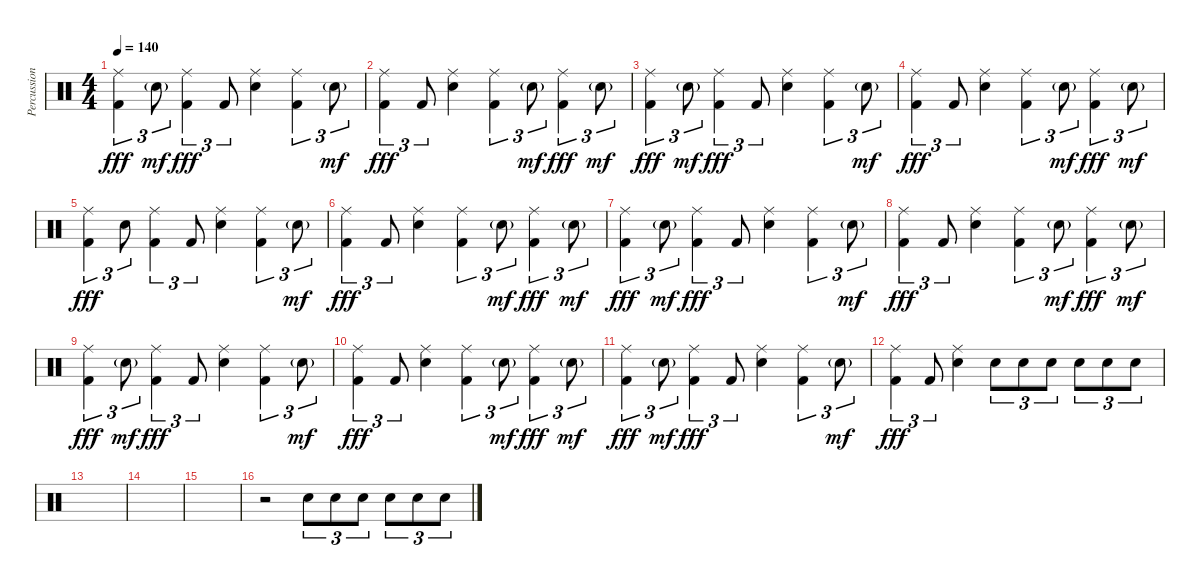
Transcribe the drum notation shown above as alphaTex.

\track ("Percussion" "Percussion") {instrument percussion}
\staff {score}
\articulation defaults
\ts (4 4)
\tempo 140
\clef neutral
\ks c
("Ride (middle)" "Kick (hit) 2").4{tu (3 2) dy fff} "Electric Snare (hit)"{g}.8{tu (3 2) dy mf} ("Ride (middle)" "Kick (hit) 2").4{tu (3 2) dy fff} "Kick (hit) 2".8{tu (3 2)} ("Ride (middle)" "Electric Snare (hit)").4 ("Ride (middle)" "Kick (hit) 2").4{tu (3 2)} "Electric Snare (hit)"{g}.8{tu (3 2) dy mf} |
("Ride (middle)" "Kick (hit) 2").4{tu (3 2) dy fff} "Kick (hit) 2".8{tu (3 2)} ("Ride (middle)" "Electric Snare (hit)").4 ("Ride (middle)" "Kick (hit) 2").4{tu (3 2)} "Electric Snare (hit)"{g}.8{tu (3 2) dy mf} ("Ride (middle)" "Kick (hit) 2").4{tu (3 2) dy fff} "Electric Snare (hit)"{g}.8{tu (3 2) dy mf} |
("Ride (middle)" "Kick (hit) 2").4{tu (3 2) dy fff} "Electric Snare (hit)"{g}.8{tu (3 2) dy mf} ("Ride (middle)" "Kick (hit) 2").4{tu (3 2) dy fff} "Kick (hit) 2".8{tu (3 2)} ("Ride (middle)" "Electric Snare (hit)").4 ("Ride (middle)" "Kick (hit) 2").4{tu (3 2)} "Electric Snare (hit)"{g}.8{tu (3 2) dy mf} |
("Ride (middle)" "Kick (hit) 2").4{tu (3 2) dy fff} "Kick (hit) 2".8{tu (3 2)} ("Ride (middle)" "Electric Snare (hit)").4 ("Ride (middle)" "Kick (hit) 2").4{tu (3 2)} "Electric Snare (hit)"{g}.8{tu (3 2) dy mf} ("Ride (middle)" "Kick (hit) 2").4{tu (3 2) dy fff} "Electric Snare (hit)"{g}.8{tu (3 2) dy mf} |
("Ride (middle)" "Kick (hit) 2").4{tu (3 2) dy fff} "Electric Snare (hit)".8{tu (3 2)} ("Ride (middle)" "Kick (hit) 2").4{tu (3 2)} "Kick (hit) 2".8{tu (3 2)} ("Ride (middle)" "Electric Snare (hit)").4 ("Ride (middle)" "Kick (hit) 2").4{tu (3 2)} "Electric Snare (hit)"{g}.8{tu (3 2) dy mf} |
("Ride (middle)" "Kick (hit) 2").4{tu (3 2) dy fff} "Kick (hit) 2".8{tu (3 2)} ("Ride (middle)" "Electric Snare (hit)").4 ("Ride (middle)" "Kick (hit) 2").4{tu (3 2)} "Electric Snare (hit)"{g}.8{tu (3 2) dy mf} ("Ride (middle)" "Kick (hit) 2").4{tu (3 2) dy fff} "Electric Snare (hit)"{g}.8{tu (3 2) dy mf} |
("Ride (middle)" "Kick (hit) 2").4{tu (3 2) dy fff} "Electric Snare (hit)"{g}.8{tu (3 2) dy mf} ("Ride (middle)" "Kick (hit) 2").4{tu (3 2) dy fff} "Kick (hit) 2".8{tu (3 2)} ("Ride (middle)" "Electric Snare (hit)").4 ("Ride (middle)" "Kick (hit) 2").4{tu (3 2)} "Electric Snare (hit)"{g}.8{tu (3 2) dy mf} |
("Ride (middle)" "Kick (hit) 2").4{tu (3 2) dy fff} "Kick (hit) 2".8{tu (3 2)} ("Ride (middle)" "Electric Snare (hit)").4 ("Ride (middle)" "Kick (hit) 2").4{tu (3 2)} "Electric Snare (hit)"{g}.8{tu (3 2) dy mf} ("Ride (middle)" "Kick (hit) 2").4{tu (3 2) dy fff} "Electric Snare (hit)"{g}.8{tu (3 2) dy mf} |
("Ride (middle)" "Kick (hit) 2").4{tu (3 2) dy fff} "Electric Snare (hit)"{g}.8{tu (3 2) dy mf} ("Ride (middle)" "Kick (hit) 2").4{tu (3 2) dy fff} "Kick (hit) 2".8{tu (3 2)} ("Ride (middle)" "Electric Snare (hit)").4 ("Ride (middle)" "Kick (hit) 2").4{tu (3 2)} "Electric Snare (hit)"{g}.8{tu (3 2) dy mf} |
("Ride (middle)" "Kick (hit) 2").4{tu (3 2) dy fff} "Kick (hit) 2".8{tu (3 2)} ("Ride (middle)" "Electric Snare (hit)").4 ("Ride (middle)" "Kick (hit) 2").4{tu (3 2)} "Electric Snare (hit)"{g}.8{tu (3 2) dy mf} ("Ride (middle)" "Kick (hit) 2").4{tu (3 2) dy fff} "Electric Snare (hit)"{g}.8{tu (3 2) dy mf} |
("Ride (middle)" "Kick (hit) 2").4{tu (3 2) dy fff} "Electric Snare (hit)"{g}.8{tu (3 2) dy mf} ("Ride (middle)" "Kick (hit) 2").4{tu (3 2) dy fff} "Kick (hit) 2".8{tu (3 2)} ("Ride (middle)" "Electric Snare (hit)").4 ("Ride (middle)" "Kick (hit) 2").4{tu (3 2)} "Electric Snare (hit)"{g}.8{tu (3 2) dy mf} |
("Ride (middle)" "Kick (hit) 2").4{tu (3 2) dy fff} "Kick (hit) 2".8{tu (3 2)} ("Ride (middle)" "Electric Snare (hit)").4 "Electric Snare (hit)".8{tu (3 2)} "Electric Snare (hit)".8{tu (3 2)} "Electric Snare (hit)".8{tu (3 2)} "Electric Snare (hit)".8{tu (3 2)} "Electric Snare (hit)".8{tu (3 2)} "Electric Snare (hit)".8{tu (3 2)} |
|
|
|
r.2 "Electric Snare (hit)".8{tu (3 2)} "Electric Snare (hit)".8{tu (3 2)} "Electric Snare (hit)".8{tu (3 2)} "Electric Snare (hit)".8{tu (3 2)} "Electric Snare (hit)".8{tu (3 2)} "Electric Snare (hit)".8{tu (3 2)}
